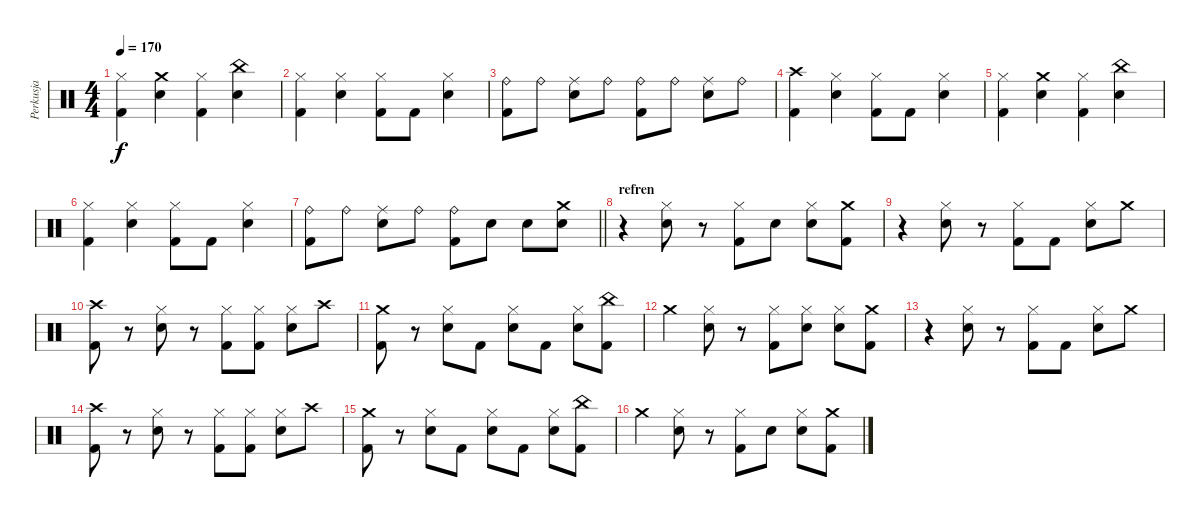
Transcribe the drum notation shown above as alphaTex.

\track ("Perkusja" "Perkusja") {instrument percussion}
\staff {score}
\articulation defaults
\ts (4 4)
\tempo 170
\clef neutral
\ks c
("Hi-Hat (closed)" "Kick (hit) 2").4{dy f} ("Crash medium (hit)" "Snare (hit) 2").4 ("Hi-Hat (closed)" "Kick (hit) 2").4 ("China (hit)" "Snare (hit) 2").4 |
("Hi-Hat (closed)" "Kick (hit) 2").4 ("Hi-Hat (closed)" "Snare (hit) 2").4 ("Hi-Hat (closed)" "Kick (hit) 2").8 "Kick (hit) 2".8 ("Hi-Hat (closed)" "Snare (hit) 2").4 |
("Ride (bell)" "Kick (hit) 2").8 "Ride (bell)".8 ("Ride (middle)" "Snare (hit) 2").8 "Ride (bell)".8 ("Ride (bell)" "Kick (hit) 2").8 "Ride (bell)".8 ("Ride (middle)" "Snare (hit) 2").8 "Ride (bell)".8 |
("Crash high (hit)" "Kick (hit) 2").4 ("Hi-Hat (closed)" "Snare (hit) 2").4 ("Hi-Hat (closed)" "Kick (hit) 2").8 "Kick (hit) 2".8 ("Hi-Hat (closed)" "Snare (hit) 2").4 |
("Hi-Hat (closed)" "Kick (hit) 2").4 ("Crash medium (hit)" "Snare (hit) 2").4 ("Hi-Hat (closed)" "Kick (hit) 2").4 ("China (hit)" "Snare (hit) 2").4 |
("Hi-Hat (closed)" "Kick (hit) 2").4 ("Hi-Hat (closed)" "Snare (hit) 2").4 ("Hi-Hat (closed)" "Kick (hit) 2").8 "Kick (hit) 2".8 ("Hi-Hat (closed)" "Snare (hit) 2").4 |
\barLineRight lightlight
("Ride (bell)" "Kick (hit) 2").8 "Ride (bell)".8 ("Ride (middle)" "Snare (hit) 2").8 "Ride (bell)".8 ("Ride (bell)" "Kick (hit) 2").8 "Snare (hit) 2".8 "Snare (hit) 2".8 ("Crash medium (hit)" "Snare (hit) 2").8 |
\section ("" "refren")
r.4 ("Hi-Hat (closed)" "Snare (hit) 2").8 r.8 ("Hi-Hat (closed)" "Kick (hit) 2").8 "Snare (hit) 2".8 ("Hi-Hat (closed)" "Snare (hit) 2").8 ("Crash medium (hit)" "Kick (hit) 2").8 |
r.4 ("Hi-Hat (closed)" "Snare (hit) 2").8 r.8 ("Hi-Hat (closed)" "Kick (hit) 2").8 "Kick (hit) 2".8 ("Hi-Hat (closed)" "Snare (hit) 2").8 "Crash medium (hit)".8 |
("Crash high (hit)" "Kick (hit) 2").8 r.8 ("Hi-Hat (closed)" "Snare (hit) 2").8 r.8 ("Hi-Hat (closed)" "Kick (hit) 2").8 ("Hi-Hat (closed)" "Kick (hit) 2").8 ("Hi-Hat (closed)" "Snare (hit) 2").8 "Crash high (hit)".8 |
("Crash medium (hit)" "Kick (hit) 2").8 r.8 ("Hi-Hat (closed)" "Snare (hit) 2").8 "Kick (hit) 2".8 ("Hi-Hat (closed)" "Snare (hit) 2").8 "Kick (hit) 2".8 ("Hi-Hat (closed)" "Snare (hit) 2").8 ("China (hit)" "Kick (hit) 2").8 |
"Crash medium (hit)".4 ("Hi-Hat (closed)" "Snare (hit) 2").8 r.8 ("Hi-Hat (closed)" "Kick (hit) 2").8 ("Hi-Hat (closed)" "Snare (hit) 2").8 ("Hi-Hat (closed)" "Snare (hit) 2").8 ("Crash medium (hit)" "Kick (hit) 2").8 |
r.4 ("Hi-Hat (closed)" "Snare (hit) 2").8 r.8 ("Hi-Hat (closed)" "Kick (hit) 2").8 "Kick (hit) 2".8 ("Hi-Hat (closed)" "Snare (hit) 2").8 "Crash medium (hit)".8 |
("Crash high (hit)" "Kick (hit) 2").8 r.8 ("Hi-Hat (closed)" "Snare (hit) 2").8 r.8 ("Hi-Hat (closed)" "Kick (hit) 2").8 ("Hi-Hat (closed)" "Kick (hit) 2").8 ("Hi-Hat (closed)" "Snare (hit) 2").8 "Crash high (hit)".8 |
("Crash medium (hit)" "Kick (hit) 2").8 r.8 ("Hi-Hat (closed)" "Snare (hit) 2").8 "Kick (hit) 2".8 ("Hi-Hat (closed)" "Snare (hit) 2").8 "Kick (hit) 2".8 ("Hi-Hat (closed)" "Snare (hit) 2").8 ("China (hit)" "Kick (hit) 2").8 |
"Crash medium (hit)".4 ("Hi-Hat (closed)" "Snare (hit) 2").8 r.8 ("Hi-Hat (closed)" "Kick (hit) 2").8 "Snare (hit) 2".8 ("Hi-Hat (closed)" "Snare (hit) 2").8 ("Crash medium (hit)" "Kick (hit) 2").8
